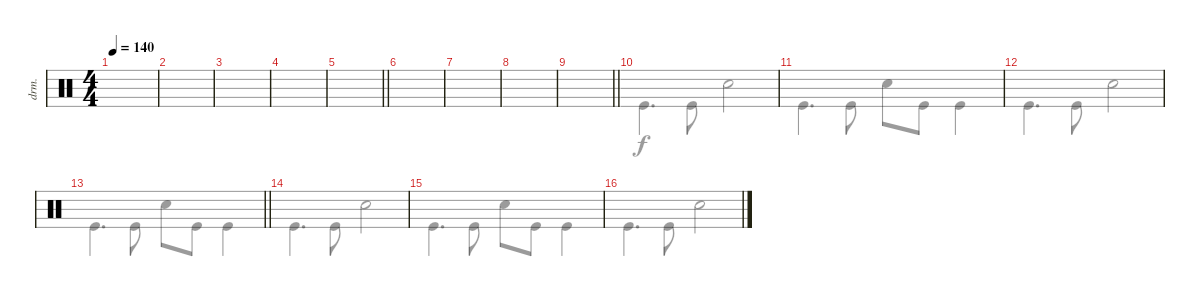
\defaultSystemsLayout 4
\bracketExtendMode groupsimilarinstruments
\otherSystemsTrackNameOrientation horizontal
\chordDiagramsInScore
\track ("Drumkit" "drm.") {instrument percussion}
\staff {score}
\articulation defaults
\voice
\ts (4 4)
\tempo 140
\clef neutral
\ks c
|
|
|
|
\barLineRight lightlight
|
|
|
|
\barLineRight lightlight
|
|
|
|
\barLineRight lightlight
|
|
|
\voice
\clef neutral
\ks c
|
|
|
|
\barLineRight lightlight
|
|
|
|
\barLineRight lightlight
|
"Kick (hit)".4{d} "Kick (hit)".8 "Snare (hit) 2".2 |
"Kick (hit)".4{d} "Kick (hit)".8 "Snare (hit) 2".8 "Kick (hit)".8 "Kick (hit)".4 |
"Kick (hit)".4{d} "Kick (hit)".8 "Snare (hit) 2".2 |
\barLineRight lightlight "Kick (hit)".4{d} "Kick (hit)".8 "Snare (hit) 2".8 "Kick (hit)".8 "Kick (hit)".4
|
"Kick (hit)".4{d} "Kick (hit)".8 "Snare (hit) 2".2 |
"Kick (hit)".4{d} "Kick (hit)".8 "Snare (hit) 2".8 "Kick (hit)".8 "Kick (hit)".4 |
"Kick (hit)".4{d} "Kick (hit)".8 "Snare (hit) 2".2
